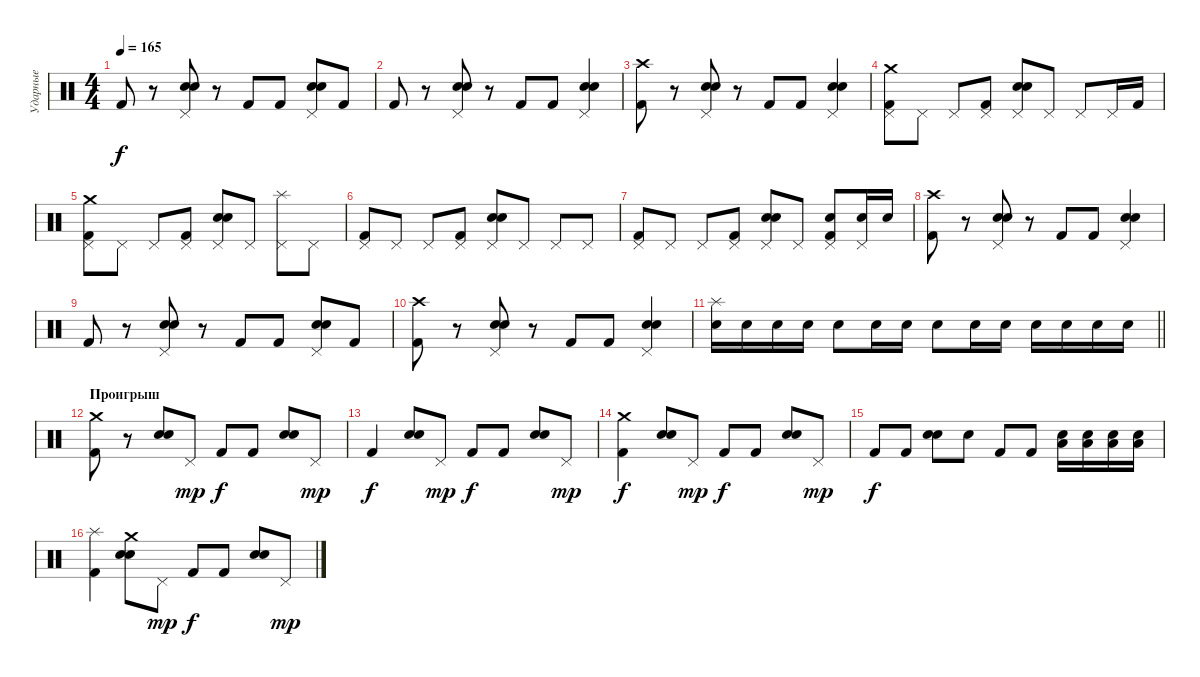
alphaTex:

\track ("Ударные" "Ударные") {instrument percussion}
\staff {score}
\articulation defaults
\ts (4 4)
\tempo 165
\clef neutral
\ks c "Kick (hit) 2".8{dy f}
r.8 ("Pedal Hi-Hat (hit)" "Electric Snare (hit)" "Snare (hit) 2").8 r.8 "Kick (hit) 2".8 "Kick (hit) 2".8 ("Pedal Hi-Hat (hit)" "Electric Snare (hit)" "Snare (hit) 2").8 "Kick (hit) 2".8 |
"Kick (hit) 2".8 r.8 ("Pedal Hi-Hat (hit)" "Electric Snare (hit)" "Snare (hit) 2").8 r.8 "Kick (hit) 2".8 "Kick (hit) 2".8 ("Pedal Hi-Hat (hit)" "Electric Snare (hit)" "Snare (hit) 2").4 |
("Crash high (hit)" "Kick (hit) 2").8 r.8 ("Pedal Hi-Hat (hit)" "Electric Snare (hit)" "Snare (hit) 2").8 r.8 "Kick (hit) 2".8 "Kick (hit) 2".8 ("Pedal Hi-Hat (hit)" "Electric Snare (hit)" "Snare (hit) 2").4 |
("Crash medium (hit)" "Pedal Hi-Hat (hit)" "Kick (hit) 2").8 "Pedal Hi-Hat (hit)".8 "Pedal Hi-Hat (hit)".8 ("Pedal Hi-Hat (hit)" "Kick (hit) 2").8 ("Pedal Hi-Hat (hit)" "Electric Snare (hit)" "Snare (hit) 2").8 "Pedal Hi-Hat (hit)".8 "Pedal Hi-Hat (hit)".8 "Pedal Hi-Hat (hit)".16 "Kick (hit) 2".16 |
("Crash medium (hit)" "Pedal Hi-Hat (hit)" "Kick (hit) 2").8 "Pedal Hi-Hat (hit)".8 "Pedal Hi-Hat (hit)".8 ("Pedal Hi-Hat (hit)" "Kick (hit) 2").8 ("Pedal Hi-Hat (hit)" "Electric Snare (hit)" "Snare (hit) 2").8 "Pedal Hi-Hat (hit)".8 ("Splash (hit)" "Pedal Hi-Hat (hit)").8 "Pedal Hi-Hat (hit)".8 |
("Pedal Hi-Hat (hit)" "Kick (hit) 2").8 "Pedal Hi-Hat (hit)".8 "Pedal Hi-Hat (hit)".8 ("Pedal Hi-Hat (hit)" "Kick (hit) 2").8 ("Pedal Hi-Hat (hit)" "Electric Snare (hit)" "Snare (hit) 2").8 "Pedal Hi-Hat (hit)".8 "Pedal Hi-Hat (hit)".8 "Pedal Hi-Hat (hit)".8 |
("Pedal Hi-Hat (hit)" "Kick (hit) 2").8 "Pedal Hi-Hat (hit)".8 "Pedal Hi-Hat (hit)".8 ("Pedal Hi-Hat (hit)" "Kick (hit) 2").8 ("Pedal Hi-Hat (hit)" "Electric Snare (hit)" "Snare (hit) 2").8 "Pedal Hi-Hat (hit)".8 ("Pedal Hi-Hat (hit)" "Electric Snare (hit)" "Kick (hit) 2").8 ("Pedal Hi-Hat (hit)" "Electric Snare (hit)").16 "Electric Snare (hit)".16 |
("Crash high (hit)" "Kick (hit) 2").8 r.8 ("Pedal Hi-Hat (hit)" "Electric Snare (hit)" "Snare (hit) 2").8 r.8 "Kick (hit) 2".8 "Kick (hit) 2".8 ("Pedal Hi-Hat (hit)" "Electric Snare (hit)" "Snare (hit) 2").4 |
"Kick (hit) 2".8 r.8 ("Pedal Hi-Hat (hit)" "Electric Snare (hit)" "Snare (hit) 2").8 r.8 "Kick (hit) 2".8 "Kick (hit) 2".8 ("Pedal Hi-Hat (hit)" "Electric Snare (hit)" "Snare (hit) 2").8 "Kick (hit) 2".8 |
("Crash high (hit)" "Kick (hit) 2").8 r.8 ("Pedal Hi-Hat (hit)" "Electric Snare (hit)" "Snare (hit) 2").8 r.8 "Kick (hit) 2".8 "Kick (hit) 2".8 ("Pedal Hi-Hat (hit)" "Electric Snare (hit)" "Snare (hit) 2").4 |
\barLineRight lightlight
("Splash (hit)" "Electric Snare (hit)").16 "Electric Snare (hit)".16 "Electric Snare (hit)".16 "Electric Snare (hit)".16 "Electric Snare (hit)".8 "Electric Snare (hit)".16 "Electric Snare (hit)".16 "Electric Snare (hit)".8 "Electric Snare (hit)".16 "Electric Snare (hit)".16 "Electric Snare (hit)".16 "Electric Snare (hit)".16 "Electric Snare (hit)".16 "Electric Snare (hit)".16 |
\section ("" "Проигрыш")
("Crash medium (hit)" "Kick (hit) 2").8 r.8 ("Electric Snare (hit)" "Snare (hit) 2").8 "Pedal Hi-Hat (hit)".8{dy mp} "Kick (hit) 2".8{dy f} "Kick (hit) 2".8 ("Electric Snare (hit)" "Snare (hit) 2").8 "Pedal Hi-Hat (hit)".8{dy mp} |
"Kick (hit) 2".4{dy f} ("Electric Snare (hit)" "Snare (hit) 2").8 "Pedal Hi-Hat (hit)".8{dy mp} "Kick (hit) 2".8{dy f} "Kick (hit) 2".8 ("Electric Snare (hit)" "Snare (hit) 2").8 "Pedal Hi-Hat (hit)".8{dy mp} |
("Crash medium (hit)" "Kick (hit) 2").4{dy f} ("Electric Snare (hit)" "Snare (hit) 2").8 "Pedal Hi-Hat (hit)".8{dy mp} "Kick (hit) 2".8{dy f} "Kick (hit) 2".8 ("Electric Snare (hit)" "Snare (hit) 2").8 "Pedal Hi-Hat (hit)".8{dy mp} |
"Kick (hit) 2".8{dy f} "Kick (hit) 2".8 ("Electric Snare (hit)" "Snare (hit) 2").8 "Electric Snare (hit)".8 "Kick (hit) 2".8 "Kick (hit) 2".8 ("Low Tom (hit)" "Snare (hit) 2").16 ("Low Tom (hit)" "Snare (hit) 2").16 ("Low Tom (hit)" "Snare (hit) 2").16 ("Low Tom (hit)" "Snare (hit) 2").16 |
("Splash (hit)" "Kick (hit) 2").4 ("Crash medium (hit)" "Electric Snare (hit)" "Snare (hit) 2").8 "Pedal Hi-Hat (hit)".8{dy mp} "Kick (hit) 2".8{dy f} "Kick (hit) 2".8 ("Electric Snare (hit)" "Snare (hit) 2").8 "Pedal Hi-Hat (hit)".8{dy mp}
